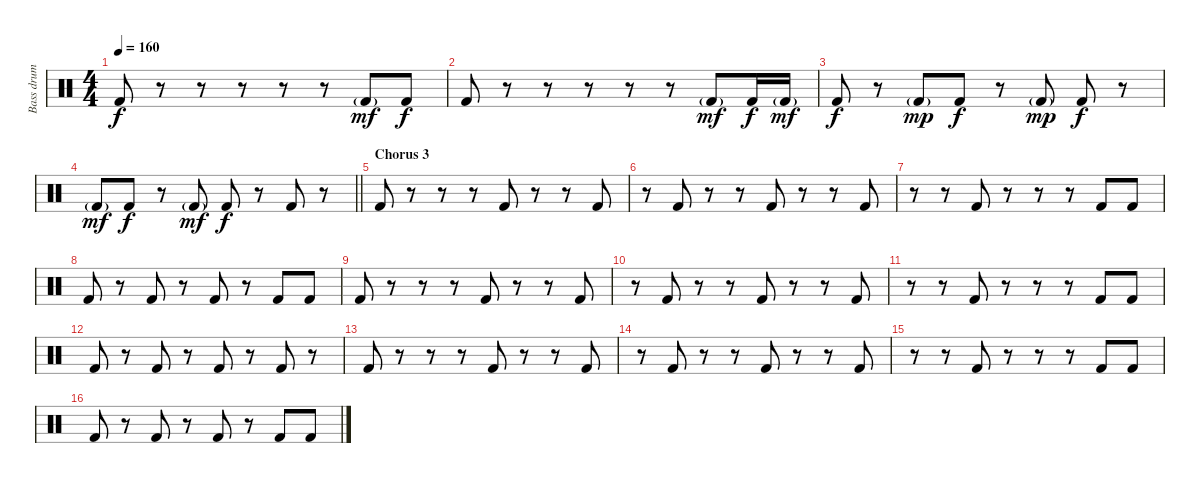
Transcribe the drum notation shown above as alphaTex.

\track ("Bass drum" "Bass drum") {instrument percussion}
\staff {score}
\articulation defaults
\ts (4 4)
\tempo 160
\clef neutral
\ks c "Kick (hit) 2".8{dy f}
r.8 r.8 r.8 r.8 r.8 "Kick (hit) 2"{g}.8{dy mf} "Kick (hit) 2".8{dy f} |
"Kick (hit) 2".8 r.8 r.8 r.8 r.8 r.8 "Kick (hit) 2"{g}.8{dy mf} "Kick (hit) 2".16{dy f} "Kick (hit) 2"{g}.16{dy mf} |
"Kick (hit) 2".8{dy f} r.8 "Kick (hit) 2"{g}.8{dy mp} "Kick (hit) 2".8{dy f} r.8 "Kick (hit) 2"{g}.8{dy mp} "Kick (hit) 2".8{dy f} r.8 |
\barLineRight lightlight "Kick (hit) 2"{g}.8{dy mf} "Kick (hit) 2".8{dy f}
r.8 "Kick (hit) 2"{g}.8{dy mf} "Kick (hit) 2".8{dy f} r.8 "Kick (hit) 2".8 r.8 |
\section ("" "Chorus 3")
"Kick (hit) 2".8 r.8 r.8 r.8 "Kick (hit) 2".8 r.8 r.8 "Kick (hit) 2".8 |
r.8 "Kick (hit) 2".8 r.8 r.8 "Kick (hit) 2".8 r.8 r.8 "Kick (hit) 2".8 |
r.8 r.8 "Kick (hit) 2".8 r.8 r.8 r.8 "Kick (hit) 2".8 "Kick (hit) 2".8 |
"Kick (hit) 2".8 r.8 "Kick (hit) 2".8 r.8 "Kick (hit) 2".8 r.8 "Kick (hit) 2".8 "Kick (hit) 2".8 |
"Kick (hit) 2".8 r.8 r.8 r.8 "Kick (hit) 2".8 r.8 r.8 "Kick (hit) 2".8 |
r.8 "Kick (hit) 2".8 r.8 r.8 "Kick (hit) 2".8 r.8 r.8 "Kick (hit) 2".8 |
r.8 r.8 "Kick (hit) 2".8 r.8 r.8 r.8 "Kick (hit) 2".8 "Kick (hit) 2".8 |
"Kick (hit) 2".8 r.8 "Kick (hit) 2".8 r.8 "Kick (hit) 2".8 r.8 "Kick (hit) 2".8 r.8 |
"Kick (hit) 2".8 r.8 r.8 r.8 "Kick (hit) 2".8 r.8 r.8 "Kick (hit) 2".8 |
r.8 "Kick (hit) 2".8 r.8 r.8 "Kick (hit) 2".8 r.8 r.8 "Kick (hit) 2".8 |
r.8 r.8 "Kick (hit) 2".8 r.8 r.8 r.8 "Kick (hit) 2".8 "Kick (hit) 2".8 |
"Kick (hit) 2".8 r.8 "Kick (hit) 2".8 r.8 "Kick (hit) 2".8 r.8 "Kick (hit) 2".8 "Kick (hit) 2".8
